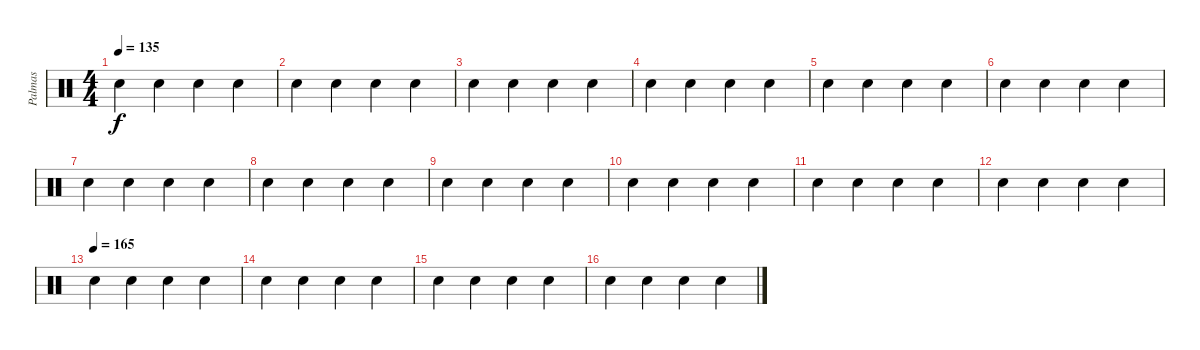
\track ("Palmas" "Palmas") {instrument percussion}
\staff {score}
\articulation defaults
\ts (4 4)
\tempo 135
\clef neutral
\ks c "Hand Clap (hit)".4{dy f} "Hand Clap (hit)".4 "Hand Clap (hit)".4 "Hand Clap (hit)".4
|
"Hand Clap (hit)".4 "Hand Clap (hit)".4 "Hand Clap (hit)".4 "Hand Clap (hit)".4 |
"Hand Clap (hit)".4 "Hand Clap (hit)".4 "Hand Clap (hit)".4 "Hand Clap (hit)".4 |
"Hand Clap (hit)".4 "Hand Clap (hit)".4 "Hand Clap (hit)".4 "Hand Clap (hit)".4 |
"Hand Clap (hit)".4 "Hand Clap (hit)".4 "Hand Clap (hit)".4 "Hand Clap (hit)".4 |
"Hand Clap (hit)".4 "Hand Clap (hit)".4 "Hand Clap (hit)".4 "Hand Clap (hit)".4 |
"Hand Clap (hit)".4 "Hand Clap (hit)".4 "Hand Clap (hit)".4 "Hand Clap (hit)".4 |
"Hand Clap (hit)".4 "Hand Clap (hit)".4 "Hand Clap (hit)".4 "Hand Clap (hit)".4 |
"Hand Clap (hit)".4 "Hand Clap (hit)".4 "Hand Clap (hit)".4 "Hand Clap (hit)".4 |
"Hand Clap (hit)".4 "Hand Clap (hit)".4 "Hand Clap (hit)".4 "Hand Clap (hit)".4 |
"Hand Clap (hit)".4 "Hand Clap (hit)".4 "Hand Clap (hit)".4 "Hand Clap (hit)".4 |
"Hand Clap (hit)".4 "Hand Clap (hit)".4 "Hand Clap (hit)".4 "Hand Clap (hit)".4 |
\tempo (165)
"Hand Clap (hit)".4 "Hand Clap (hit)".4 "Hand Clap (hit)".4 "Hand Clap (hit)".4 |
"Hand Clap (hit)".4 "Hand Clap (hit)".4 "Hand Clap (hit)".4 "Hand Clap (hit)".4 |
"Hand Clap (hit)".4 "Hand Clap (hit)".4 "Hand Clap (hit)".4 "Hand Clap (hit)".4 |
"Hand Clap (hit)".4 "Hand Clap (hit)".4 "Hand Clap (hit)".4 "Hand Clap (hit)".4
